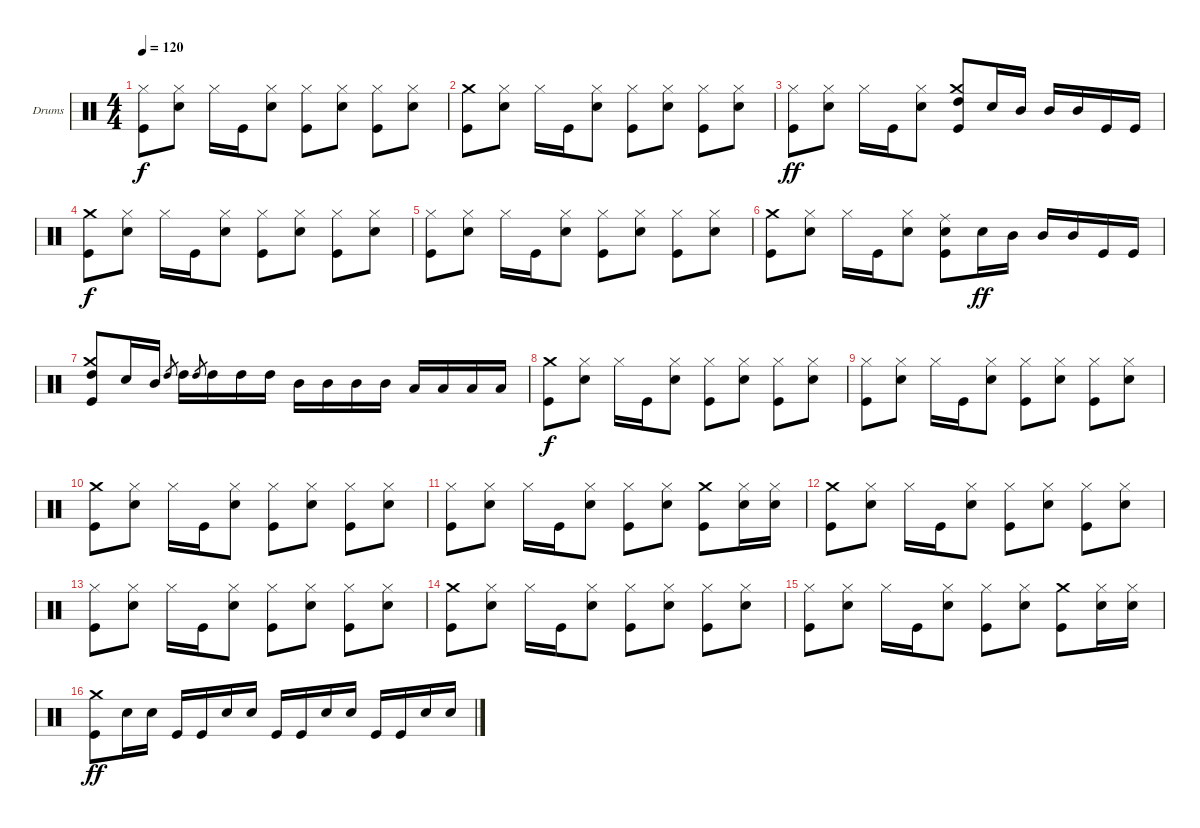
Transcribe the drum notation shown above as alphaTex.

\defaultSystemsLayout 4
\bracketExtendMode groupsimilarinstruments
\firstSystemTrackNameOrientation horizontal
\otherSystemsTrackNameOrientation horizontal
\track ("Drumkit" "Drums") {instrument percussion}
\staff {score}
\articulation defaults
\ts (4 4)
\tempo 120
\clef neutral
\scale
0.333333
\ks c
("Kick (hit)" "Hi-Hat (closed)").8{dy f} ("Snare (hit) 2" "Hi-Hat (closed)").8 "Hi-Hat (closed)".16 "Kick (hit)".16 ("Snare (hit) 2" "Hi-Hat (closed)").8 ("Kick (hit)" "Hi-Hat (closed)").8 ("Snare (hit) 2" "Hi-Hat (closed)").8 ("Kick (hit)" "Hi-Hat (closed)").8 ("Snare (hit) 2" "Hi-Hat (closed)").8 |
\scale
0.333333 ("Kick (hit)" "Crash medium (hit)").8 ("Snare (hit) 2" "Hi-Hat (closed)").8 "Hi-Hat (closed)".16 "Kick (hit)".16 ("Snare (hit) 2" "Hi-Hat (closed)").8 ("Kick (hit)" "Hi-Hat (closed)").8 ("Snare (hit) 2" "Hi-Hat (closed)").8 ("Kick (hit)" "Hi-Hat (closed)").8 ("Snare (hit) 2" "Hi-Hat (closed)").8 |
\scale
0.333333 ("Kick (hit)" "Hi-Hat (closed)").8{dy ff} ("Snare (hit) 2" "Hi-Hat (closed)").8 "Hi-Hat (closed)".16 "Kick (hit)".16 ("Snare (hit) 2" "Hi-Hat (closed)").8 ("Kick (hit)" "Crash medium (hit)" "High Tom (hit)").8 "Snare (hit) 2".16 "Mid Tom (hit)".16 "Mid Tom (hit)".16 "Mid Tom (hit)".16 "Kick (hit)".16 "Kick (hit)".16 |
\scale
0.333333 ("Kick (hit)" "Crash medium (hit)").8{dy f} ("Snare (hit) 2" "Hi-Hat (closed)").8 "Hi-Hat (closed)".16 "Kick (hit)".16 ("Snare (hit) 2" "Hi-Hat (closed)").8 ("Kick (hit)" "Hi-Hat (closed)").8 ("Snare (hit) 2" "Hi-Hat (closed)").8 ("Kick (hit)" "Hi-Hat (closed)").8 ("Snare (hit) 2" "Hi-Hat (closed)").8 |
\scale
0.333333 ("Kick (hit)" "Hi-Hat (closed)").8 ("Snare (hit) 2" "Hi-Hat (closed)").8 "Hi-Hat (closed)".16 "Kick (hit)".16 ("Snare (hit) 2" "Hi-Hat (closed)").8 ("Kick (hit)" "Hi-Hat (closed)").8 ("Snare (hit) 2" "Hi-Hat (closed)").8 ("Kick (hit)" "Hi-Hat (closed)").8 ("Snare (hit) 2" "Hi-Hat (closed)").8 |
\scale
0.333333 ("Kick (hit)" "Crash medium (hit)").8 ("Snare (hit) 2" "Hi-Hat (closed)").8 "Hi-Hat (closed)".16 "Kick (hit)".16 ("Snare (hit) 2" "Hi-Hat (closed)").8 ("Kick (hit)" "Ride (middle)" "Snare (hit) 2").8 "Snare (hit) 2".16{dy ff} "Mid Tom (hit)".16 "Mid Tom (hit)".16 "Mid Tom (hit)".16 "Kick (hit)".16 "Kick (hit)".16 |
\scale
0.333333 ("Kick (hit)" "Crash medium (hit)" "High Tom (hit)").8 "Snare (hit) 2".16 "Mid Tom (hit)".16 "High Tom (hit)".8{gr} "High Tom (hit)".16 "High Tom (hit)".8{gr} "High Tom (hit)".16 "High Tom (hit)".16 "High Tom (hit)".16 "Mid Tom (hit)".16 "Mid Tom (hit)".16 "Mid Tom (hit)".16 "Mid Tom (hit)".16 "Low Tom (hit)".16 "Low Tom (hit)".16 "Low Tom (hit)".16 "Low Tom (hit)".16 |
\scale
0.333333 ("Kick (hit)" "Crash medium (hit)").8{dy f} ("Snare (hit) 2" "Hi-Hat (closed)").8 "Hi-Hat (closed)".16 "Kick (hit)".16 ("Snare (hit) 2" "Hi-Hat (closed)").8 ("Kick (hit)" "Hi-Hat (closed)").8 ("Snare (hit) 2" "Hi-Hat (closed)").8 ("Kick (hit)" "Hi-Hat (closed)").8 ("Snare (hit) 2" "Hi-Hat (closed)").8 |
\scale
0.333333 ("Kick (hit)" "Hi-Hat (closed)").8 ("Snare (hit) 2" "Hi-Hat (closed)").8 "Hi-Hat (closed)".16 "Kick (hit)".16 ("Snare (hit) 2" "Hi-Hat (closed)").8 ("Kick (hit)" "Hi-Hat (closed)").8 ("Snare (hit) 2" "Hi-Hat (closed)").8 ("Kick (hit)" "Hi-Hat (closed)").8 ("Snare (hit) 2" "Hi-Hat (closed)").8 |
\scale
0.333333 ("Kick (hit)" "Crash medium (hit)").8 ("Snare (hit) 2" "Hi-Hat (closed)").8 "Hi-Hat (closed)".16 "Kick (hit)".16 ("Snare (hit) 2" "Hi-Hat (closed)").8 ("Kick (hit)" "Hi-Hat (closed)").8 ("Snare (hit) 2" "Hi-Hat (closed)").8 ("Kick (hit)" "Hi-Hat (closed)").8 ("Snare (hit) 2" "Hi-Hat (closed)").8 |
\scale
0.333333 ("Kick (hit)" "Hi-Hat (closed)").8 ("Snare (hit) 2" "Hi-Hat (closed)").8 "Hi-Hat (closed)".16 "Kick (hit)".16 ("Snare (hit) 2" "Hi-Hat (closed)").8 ("Kick (hit)" "Hi-Hat (closed)").8 ("Snare (hit) 2" "Hi-Hat (closed)").8 ("Kick (hit)" "Crash medium (hit)").8 ("Snare (hit) 2" "Hi-Hat (closed)").16 ("Snare (hit) 2" "Hi-Hat (closed)").16 |
\scale
0.333333 ("Kick (hit)" "Crash medium (hit)").8 ("Snare (hit) 2" "Hi-Hat (closed)").8 "Hi-Hat (closed)".16 "Kick (hit)".16 ("Snare (hit) 2" "Hi-Hat (closed)").8 ("Kick (hit)" "Hi-Hat (closed)").8 ("Snare (hit) 2" "Hi-Hat (closed)").8 ("Kick (hit)" "Hi-Hat (closed)").8 ("Snare (hit) 2" "Hi-Hat (closed)").8 |
\scale
0.333333 ("Kick (hit)" "Hi-Hat (closed)").8 ("Snare (hit) 2" "Hi-Hat (closed)").8 "Hi-Hat (closed)".16 "Kick (hit)".16 ("Snare (hit) 2" "Hi-Hat (closed)").8 ("Kick (hit)" "Hi-Hat (closed)").8 ("Snare (hit) 2" "Hi-Hat (closed)").8 ("Kick (hit)" "Hi-Hat (closed)").8 ("Snare (hit) 2" "Hi-Hat (closed)").8 |
\scale
0.333333 ("Kick (hit)" "Crash medium (hit)").8 ("Snare (hit) 2" "Hi-Hat (closed)").8 "Hi-Hat (closed)".16 "Kick (hit)".16 ("Snare (hit) 2" "Hi-Hat (closed)").8 ("Kick (hit)" "Hi-Hat (closed)").8 ("Snare (hit) 2" "Hi-Hat (closed)").8 ("Kick (hit)" "Hi-Hat (closed)").8 ("Snare (hit) 2" "Hi-Hat (closed)").8 |
\scale
0.333333 ("Kick (hit)" "Hi-Hat (closed)").8 ("Snare (hit) 2" "Hi-Hat (closed)").8 "Hi-Hat (closed)".16 "Kick (hit)".16 ("Snare (hit) 2" "Hi-Hat (closed)").8 ("Kick (hit)" "Hi-Hat (closed)").8 ("Snare (hit) 2" "Hi-Hat (closed)").8 ("Kick (hit)" "Crash medium (hit)").8 ("Snare (hit) 2" "Hi-Hat (closed)").16 ("Snare (hit) 2" "Hi-Hat (closed)").16 |
\scale
0.333333 ("Kick (hit)" "Crash medium (hit)").8{dy ff} "Snare (hit) 2".16 "Snare (hit) 2".16 "Kick (hit)".16 "Kick (hit)".16 "Snare (hit) 2".16 "Snare (hit) 2".16 "Kick (hit)".16 "Kick (hit)".16 "Snare (hit) 2".16 "Snare (hit) 2".16 "Kick (hit)".16 "Kick (hit)".16 "Snare (hit) 2".16 "Snare (hit) 2".16
